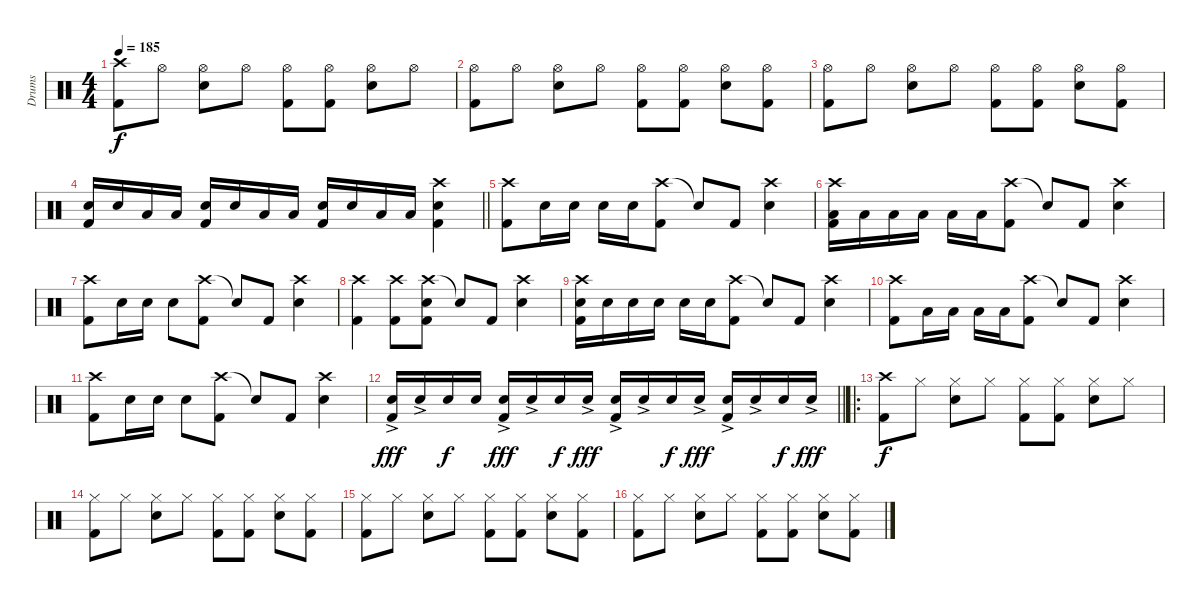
\track ("Drums" "Drums") {instrument percussion}
\staff {score}
\articulation defaults
\ts (4 4)
\tempo 185
\clef neutral
\ks c
("Crash high (hit)" "Kick (hit) 2").8{dy f} "Hi-Hat (open)".8 ("Hi-Hat (open)" "Electric Snare (hit)").8 "Hi-Hat (open)".8 ("Hi-Hat (open)" "Kick (hit) 2").8 ("Hi-Hat (open)" "Kick (hit) 2").8 ("Hi-Hat (open)" "Electric Snare (hit)").8 "Hi-Hat (open)".8 |
("Hi-Hat (open)" "Kick (hit) 2").8 "Hi-Hat (open)".8 ("Hi-Hat (open)" "Electric Snare (hit)").8 "Hi-Hat (open)".8 ("Hi-Hat (open)" "Kick (hit) 2").8 ("Hi-Hat (open)" "Kick (hit) 2").8 ("Hi-Hat (open)" "Electric Snare (hit)").8 ("Hi-Hat (open)" "Kick (hit) 2").8 |
("Hi-Hat (open)" "Kick (hit) 2").8 "Hi-Hat (open)".8 ("Hi-Hat (open)" "Electric Snare (hit)").8 "Hi-Hat (open)".8 ("Hi-Hat (open)" "Kick (hit) 2").8 ("Hi-Hat (open)" "Kick (hit) 2").8 ("Hi-Hat (open)" "Electric Snare (hit)").8 ("Hi-Hat (open)" "Kick (hit) 2").8 |
\barLineRight lightlight
("Electric Snare (hit)" "Kick (hit) 2").16 "Electric Snare (hit)".16 "Low Tom (hit)".16 "Low Tom (hit)".16 ("Electric Snare (hit)" "Kick (hit) 2").16 "Electric Snare (hit)".16 "Low Tom (hit)".16 "Low Tom (hit)".16 ("Electric Snare (hit)" "Kick (hit) 2").16 "Electric Snare (hit)".16 "Low Tom (hit)".16 "Low Tom (hit)".16 ("Crash high (hit)" "Electric Snare (hit)" "Kick (hit) 2").4 |
("Crash high (hit)" "Kick (hit) 2").8 "Electric Snare (hit)".16 "Electric Snare (hit)".16 "Electric Snare (hit)".16 "Electric Snare (hit)".16 ("Crash high (hit)" "Kick (hit) 2").8 "Snare (hit)"{t}.8 "Kick (hit) 2".8 ("Crash high (hit)" "Electric Snare (hit)").4 |
("Crash high (hit)" "Low Tom (hit)" "Kick (hit) 2").16 "Low Tom (hit)".16 "Low Tom (hit)".16 "Low Tom (hit)".16 "Low Tom (hit)".16 "Low Tom (hit)".16 ("Crash high (hit)" "Kick (hit) 2").8 "Snare (hit)"{t}.8 "Kick (hit) 2".8 ("Crash high (hit)" "Electric Snare (hit)").4 |
("Crash high (hit)" "Kick (hit) 2").8 "Electric Snare (hit)".16 "Electric Snare (hit)".16 "Electric Snare (hit)".8 ("Crash high (hit)" "Kick (hit) 2").8 "Snare (hit)"{t}.8 "Kick (hit) 2".8 ("Crash high (hit)" "Electric Snare (hit)").4 |
("Crash high (hit)" "Kick (hit) 2").4 ("Crash high (hit)" "Kick (hit) 2").8 ("Crash high (hit)" "Electric Snare (hit)" "Kick (hit) 2").8 "Snare (hit)"{t}.8 "Kick (hit) 2".8 ("Crash high (hit)" "Electric Snare (hit)").4 |
("Crash high (hit)" "Electric Snare (hit)" "Kick (hit) 2").16 "Electric Snare (hit)".16 "Electric Snare (hit)".16 "Electric Snare (hit)".16 "Electric Snare (hit)".16 "Electric Snare (hit)".16 ("Crash high (hit)" "Kick (hit) 2").8 "Snare (hit)"{t}.8 "Kick (hit) 2".8 ("Crash high (hit)" "Electric Snare (hit)").4 |
("Crash high (hit)" "Kick (hit) 2").8 "Low Tom (hit)".16 "Low Tom (hit)".16 "Low Tom (hit)".16 "Low Tom (hit)".16 ("Crash high (hit)" "Kick (hit) 2").8 "Snare (hit)"{t}.8 "Kick (hit) 2".8 ("Crash high (hit)" "Electric Snare (hit)").4 |
("Crash high (hit)" "Kick (hit) 2").8 "Electric Snare (hit)".16 "Electric Snare (hit)".16 "Electric Snare (hit)".8 ("Crash high (hit)" "Kick (hit) 2").8 "Snare (hit)"{t}.8 "Kick (hit) 2".8 ("Crash high (hit)" "Electric Snare (hit)").4 |
\barLineRight lightlight
("Electric Snare (hit)"{ac} "Kick (hit) 2").16{dy fff} "Electric Snare (hit)"{ac}.16 "Electric Snare (hit)".16{dy f} "Electric Snare (hit)".16 ("Electric Snare (hit)"{ac} "Kick (hit) 2").16{dy fff} "Electric Snare (hit)"{ac}.16 "Electric Snare (hit)".16{dy f} "Electric Snare (hit)"{ac}.16{dy fff} ("Electric Snare (hit)"{ac} "Kick (hit) 2").16 "Electric Snare (hit)"{ac}.16 "Electric Snare (hit)".16{dy f} "Electric Snare (hit)"{ac}.16{dy fff} ("Electric Snare (hit)"{ac} "Kick (hit) 2").16 "Electric Snare (hit)"{ac}.16 "Electric Snare (hit)".16{dy f} "Electric Snare (hit)"{ac}.16{dy fff} |
\ro
("Crash high (hit)" "Kick (hit) 2").8{dy f} "Hi-Hat (closed)".8 ("Hi-Hat (closed)" "Electric Snare (hit)").8 "Hi-Hat (closed)".8 ("Hi-Hat (closed)" "Kick (hit) 2").8 ("Hi-Hat (closed)" "Kick (hit) 2").8 ("Hi-Hat (closed)" "Electric Snare (hit)").8 "Hi-Hat (closed)".8 |
("Hi-Hat (closed)" "Kick (hit) 2").8 "Hi-Hat (closed)".8 ("Hi-Hat (closed)" "Electric Snare (hit)").8 "Hi-Hat (closed)".8 ("Hi-Hat (closed)" "Kick (hit) 2").8 ("Hi-Hat (closed)" "Kick (hit) 2").8 ("Hi-Hat (closed)" "Electric Snare (hit)").8 ("Hi-Hat (closed)" "Kick (hit) 2").8 |
("Hi-Hat (closed)" "Kick (hit) 2").8 "Hi-Hat (closed)".8 ("Hi-Hat (closed)" "Electric Snare (hit)").8 "Hi-Hat (closed)".8 ("Hi-Hat (closed)" "Kick (hit) 2").8 ("Hi-Hat (closed)" "Kick (hit) 2").8 ("Hi-Hat (closed)" "Electric Snare (hit)").8 ("Hi-Hat (closed)" "Kick (hit) 2").8 |
("Hi-Hat (closed)" "Kick (hit) 2").8 "Hi-Hat (closed)".8 ("Hi-Hat (closed)" "Electric Snare (hit)").8 "Hi-Hat (closed)".8 ("Hi-Hat (closed)" "Kick (hit) 2").8 ("Hi-Hat (closed)" "Kick (hit) 2").8 ("Hi-Hat (closed)" "Electric Snare (hit)").8 ("Hi-Hat (closed)" "Kick (hit) 2").8
